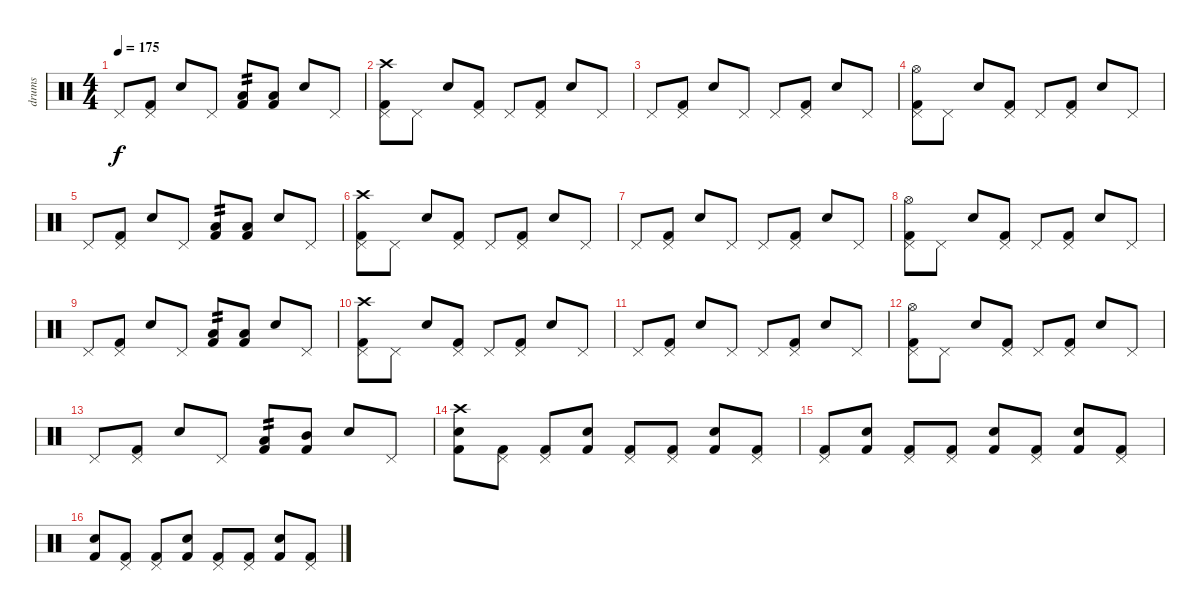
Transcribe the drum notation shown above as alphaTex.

\track ("drums" "drums") {instrument percussion}
\staff {score}
\articulation defaults
\ts (4 4)
\tempo 175
\clef neutral
\ks c "Pedal Hi-Hat (hit)".8{dy f}
("Pedal Hi-Hat (hit)" "Kick (hit) 2").8 "Electric Snare (hit)".8 "Pedal Hi-Hat (hit)".8 ("Low Tom (hit)" "Kick (hit) 2").8{tp 2} ("Low Tom (hit)" "Kick (hit) 2").8 "Electric Snare (hit)".8 "Pedal Hi-Hat (hit)".8 |
("Crash high (hit)" "Pedal Hi-Hat (hit)" "Kick (hit) 2").8 "Pedal Hi-Hat (hit)".8 "Electric Snare (hit)".8 ("Pedal Hi-Hat (hit)" "Kick (hit) 2").8 "Pedal Hi-Hat (hit)".8 ("Pedal Hi-Hat (hit)" "Kick (hit) 2").8 "Electric Snare (hit)".8 "Pedal Hi-Hat (hit)".8 |
"Pedal Hi-Hat (hit)".8 ("Pedal Hi-Hat (hit)" "Kick (hit) 2").8 "Electric Snare (hit)".8 "Pedal Hi-Hat (hit)".8 "Pedal Hi-Hat (hit)".8 ("Pedal Hi-Hat (hit)" "Kick (hit) 2").8 "Electric Snare (hit)".8 "Pedal Hi-Hat (hit)".8 |
("Hi-Hat (open)" "Pedal Hi-Hat (hit)" "Kick (hit) 2").8 "Pedal Hi-Hat (hit)".8 "Electric Snare (hit)".8 ("Pedal Hi-Hat (hit)" "Kick (hit) 2").8 "Pedal Hi-Hat (hit)".8 ("Pedal Hi-Hat (hit)" "Kick (hit) 2").8 "Electric Snare (hit)".8 "Pedal Hi-Hat (hit)".8 |
"Pedal Hi-Hat (hit)".8 ("Pedal Hi-Hat (hit)" "Kick (hit) 2").8 "Electric Snare (hit)".8 "Pedal Hi-Hat (hit)".8 ("Low Tom (hit)" "Kick (hit) 2").8{tp 2} ("Low Tom (hit)" "Kick (hit) 2").8 "Electric Snare (hit)".8 "Pedal Hi-Hat (hit)".8 |
("Crash high (hit)" "Pedal Hi-Hat (hit)" "Kick (hit) 2").8 "Pedal Hi-Hat (hit)".8 "Electric Snare (hit)".8 ("Pedal Hi-Hat (hit)" "Kick (hit) 2").8 "Pedal Hi-Hat (hit)".8 ("Pedal Hi-Hat (hit)" "Kick (hit) 2").8 "Electric Snare (hit)".8 "Pedal Hi-Hat (hit)".8 |
"Pedal Hi-Hat (hit)".8 ("Pedal Hi-Hat (hit)" "Kick (hit) 2").8 "Electric Snare (hit)".8 "Pedal Hi-Hat (hit)".8 "Pedal Hi-Hat (hit)".8 ("Pedal Hi-Hat (hit)" "Kick (hit) 2").8 "Electric Snare (hit)".8 "Pedal Hi-Hat (hit)".8 |
("Hi-Hat (open)" "Pedal Hi-Hat (hit)" "Kick (hit) 2").8 "Pedal Hi-Hat (hit)".8 "Electric Snare (hit)".8 ("Pedal Hi-Hat (hit)" "Kick (hit) 2").8 "Pedal Hi-Hat (hit)".8 ("Pedal Hi-Hat (hit)" "Kick (hit) 2").8 "Electric Snare (hit)".8 "Pedal Hi-Hat (hit)".8 |
"Pedal Hi-Hat (hit)".8 ("Pedal Hi-Hat (hit)" "Kick (hit) 2").8 "Electric Snare (hit)".8 "Pedal Hi-Hat (hit)".8 ("Low Tom (hit)" "Kick (hit) 2").8{tp 2} ("Low Tom (hit)" "Kick (hit) 2").8 "Electric Snare (hit)".8 "Pedal Hi-Hat (hit)".8 |
("Crash high (hit)" "Pedal Hi-Hat (hit)" "Kick (hit) 2").8 "Pedal Hi-Hat (hit)".8 "Electric Snare (hit)".8 ("Pedal Hi-Hat (hit)" "Kick (hit) 2").8 "Pedal Hi-Hat (hit)".8 ("Pedal Hi-Hat (hit)" "Kick (hit) 2").8 "Electric Snare (hit)".8 "Pedal Hi-Hat (hit)".8 |
"Pedal Hi-Hat (hit)".8 ("Pedal Hi-Hat (hit)" "Kick (hit) 2").8 "Electric Snare (hit)".8 "Pedal Hi-Hat (hit)".8 "Pedal Hi-Hat (hit)".8 ("Pedal Hi-Hat (hit)" "Kick (hit) 2").8 "Electric Snare (hit)".8 "Pedal Hi-Hat (hit)".8 |
("Hi-Hat (open)" "Pedal Hi-Hat (hit)" "Kick (hit) 2").8 "Pedal Hi-Hat (hit)".8 "Electric Snare (hit)".8 ("Pedal Hi-Hat (hit)" "Kick (hit) 2").8 "Pedal Hi-Hat (hit)".8 ("Pedal Hi-Hat (hit)" "Kick (hit) 2").8 "Electric Snare (hit)".8 "Pedal Hi-Hat (hit)".8 |
"Pedal Hi-Hat (hit)".8 ("Pedal Hi-Hat (hit)" "Kick (hit) 2").8 "Electric Snare (hit)".8 "Pedal Hi-Hat (hit)".8 ("Low Tom (hit)" "Kick (hit) 2").8{tp 2} ("Mid Tom (hit)" "Kick (hit) 2").8 "Electric Snare (hit)".8 "Pedal Hi-Hat (hit)".8 |
("Crash high (hit)" "Electric Snare (hit)" "Kick (hit) 2").8 ("Pedal Hi-Hat (hit)" "Kick (hit) 2").8 ("Pedal Hi-Hat (hit)" "Kick (hit) 2").8 ("Electric Snare (hit)" "Kick (hit) 2").8 ("Pedal Hi-Hat (hit)" "Kick (hit) 2").8 ("Pedal Hi-Hat (hit)" "Kick (hit) 2").8 ("Electric Snare (hit)" "Kick (hit) 2").8 ("Pedal Hi-Hat (hit)" "Kick (hit) 2").8 |
("Pedal Hi-Hat (hit)" "Kick (hit) 2").8 ("Electric Snare (hit)" "Kick (hit) 2").8 ("Pedal Hi-Hat (hit)" "Kick (hit) 2").8 ("Pedal Hi-Hat (hit)" "Kick (hit) 2").8 ("Electric Snare (hit)" "Kick (hit) 2").8 ("Pedal Hi-Hat (hit)" "Kick (hit) 2").8 ("Electric Snare (hit)" "Kick (hit) 2").8 ("Pedal Hi-Hat (hit)" "Kick (hit) 2").8 |
("Electric Snare (hit)" "Kick (hit) 2").8 ("Pedal Hi-Hat (hit)" "Kick (hit) 2").8 ("Pedal Hi-Hat (hit)" "Kick (hit) 2").8 ("Electric Snare (hit)" "Kick (hit) 2").8 ("Pedal Hi-Hat (hit)" "Kick (hit) 2").8 ("Pedal Hi-Hat (hit)" "Kick (hit) 2").8 ("Electric Snare (hit)" "Kick (hit) 2").8 ("Pedal Hi-Hat (hit)" "Kick (hit) 2").8
